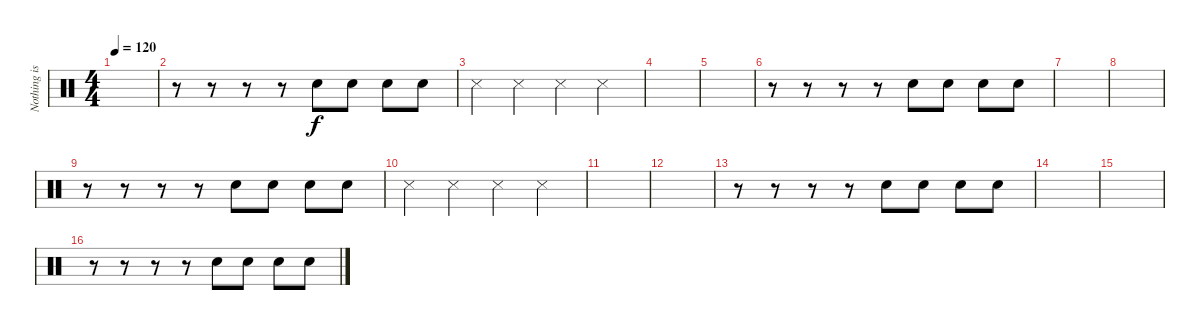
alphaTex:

\track ("Nothing is drummer" "Nothing is") {instrument percussion}
\staff {score}
\articulation defaults
\ts (4 4)
\tempo 120
\clef neutral
\ks c
|
r.8 r.8 r.8 r.8 "Electric Snare (hit)".8 "Electric Snare (hit)".8 "Electric Snare (hit)".8 "Electric Snare (hit)".8 |
"Metronome (hit)".4 "Metronome (hit)".4 "Metronome (hit)".4 "Metronome (hit)".4 |
|
|
r.8 r.8 r.8 r.8 "Electric Snare (hit)".8 "Electric Snare (hit)".8 "Electric Snare (hit)".8 "Electric Snare (hit)".8 |
|
|
r.8 r.8 r.8 r.8 "Electric Snare (hit)".8 "Electric Snare (hit)".8 "Electric Snare (hit)".8 "Electric Snare (hit)".8 |
"Metronome (hit)".4 "Metronome (hit)".4 "Metronome (hit)".4 "Metronome (hit)".4 |
|
|
r.8 r.8 r.8 r.8 "Electric Snare (hit)".8 "Electric Snare (hit)".8 "Electric Snare (hit)".8 "Electric Snare (hit)".8 |
|
|
r.8 r.8 r.8 r.8 "Electric Snare (hit)".8 "Electric Snare (hit)".8 "Electric Snare (hit)".8 "Electric Snare (hit)".8
